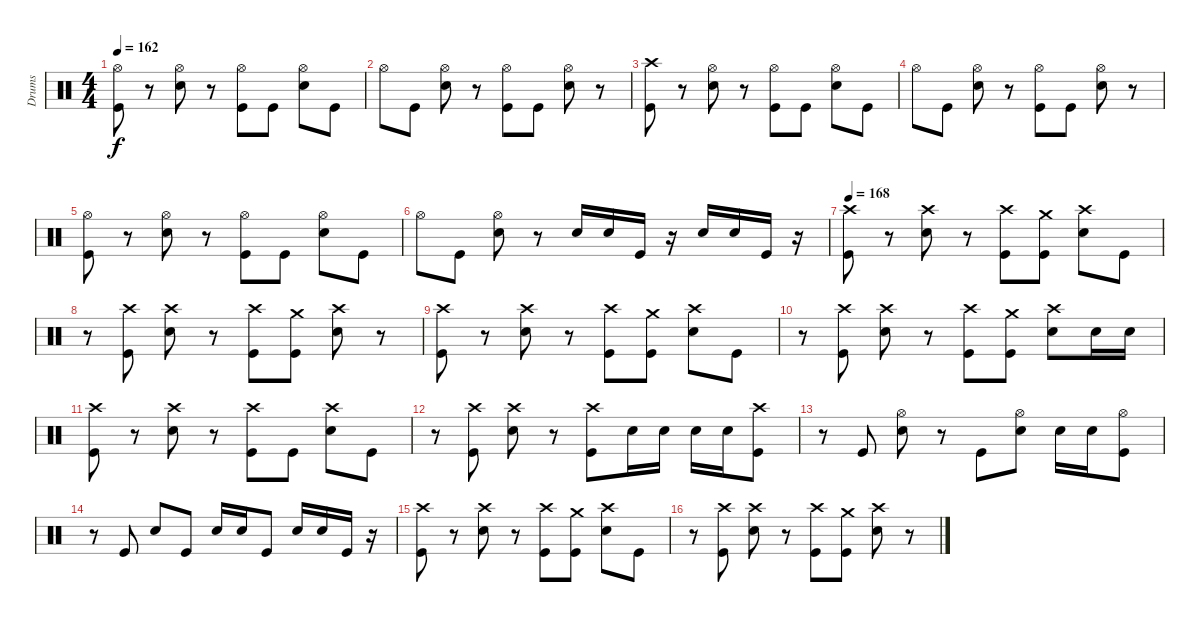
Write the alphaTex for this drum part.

\track ("Drums" "Drums") {instrument percussion}
\staff {score}
\articulation defaults
\ts (4 4)
\tempo 162
\clef neutral
\ks c
("Hi-Hat (open)" "Kick (hit)").8{dy f} r.8 ("Hi-Hat (open)" "Snare (hit) 2").8 r.8 ("Hi-Hat (open)" "Kick (hit)").8 "Kick (hit)".8 ("Hi-Hat (open)" "Snare (hit) 2").8 "Kick (hit)".8 |
"Hi-Hat (open)".8 "Kick (hit)".8 ("Hi-Hat (open)" "Snare (hit) 2").8 r.8 ("Hi-Hat (open)" "Kick (hit)").8 "Kick (hit)".8 ("Hi-Hat (open)" "Snare (hit) 2").8 r.8 |
("Crash high (hit)" "Kick (hit)").8 r.8 ("Hi-Hat (open)" "Snare (hit) 2").8 r.8 ("Hi-Hat (open)" "Kick (hit)").8 "Kick (hit)".8 ("Hi-Hat (open)" "Snare (hit) 2").8 "Kick (hit)".8 |
"Hi-Hat (open)".8 "Kick (hit)".8 ("Hi-Hat (open)" "Snare (hit) 2").8 r.8 ("Hi-Hat (open)" "Kick (hit)").8 "Kick (hit)".8 ("Hi-Hat (open)" "Snare (hit) 2").8 r.8 |
("Hi-Hat (open)" "Kick (hit)").8 r.8 ("Hi-Hat (open)" "Snare (hit) 2").8 r.8 ("Hi-Hat (open)" "Kick (hit)").8 "Kick (hit)".8 ("Hi-Hat (open)" "Snare (hit) 2").8 "Kick (hit)".8 |
"Hi-Hat (open)".8 "Kick (hit)".8 ("Hi-Hat (open)" "Snare (hit) 2").8 r.8 "Snare (hit) 2".16 "Snare (hit) 2".16 "Kick (hit)".16 r.16 "Snare (hit) 2".16 "Snare (hit) 2".16 "Kick (hit)".16 r.16 |
\tempo 168
("Crash high (hit)" "Kick (hit)").8 r.8 ("Crash high (hit)" "Snare (hit) 2").8 r.8 ("Crash high (hit)" "Kick (hit)").8 ("Crash medium (hit)" "Kick (hit)").8 ("Crash high (hit)" "Snare (hit) 2").8 "Kick (hit)".8 |
r.8 ("Crash high (hit)" "Kick (hit)").8 ("Crash high (hit)" "Snare (hit) 2").8 r.8 ("Crash high (hit)" "Kick (hit)").8 ("Crash medium (hit)" "Kick (hit)").8 ("Crash high (hit)" "Snare (hit) 2").8 r.8 |
("Crash high (hit)" "Kick (hit)").8 r.8 ("Crash high (hit)" "Snare (hit) 2").8 r.8 ("Crash high (hit)" "Kick (hit)").8 ("Crash medium (hit)" "Kick (hit)").8 ("Crash high (hit)" "Snare (hit) 2").8 "Kick (hit)".8 |
r.8 ("Crash high (hit)" "Kick (hit)").8 ("Crash high (hit)" "Snare (hit) 2").8 r.8 ("Crash high (hit)" "Kick (hit)").8 ("Crash medium (hit)" "Kick (hit)").8 ("Crash high (hit)" "Snare (hit) 2").8 "Snare (hit) 2".16 "Snare (hit) 2".16 |
("Crash high (hit)" "Kick (hit)").8 r.8 ("Crash high (hit)" "Snare (hit) 2").8 r.8 ("Crash high (hit)" "Kick (hit)").8 "Kick (hit)".8 ("Crash high (hit)" "Snare (hit) 2").8 "Kick (hit)".8 |
r.8 ("Crash high (hit)" "Kick (hit)").8 ("Crash high (hit)" "Snare (hit) 2").8 r.8 ("Crash high (hit)" "Kick (hit)").8 "Snare (hit) 2".16 "Snare (hit) 2".16 "Snare (hit) 2".16 "Snare (hit) 2".16 ("Crash high (hit)" "Kick (hit)").8 |
r.8 "Kick (hit)".8 ("Hi-Hat (open)" "Snare (hit) 2").8 r.8 "Kick (hit)".8 ("Hi-Hat (open)" "Snare (hit) 2").8 "Snare (hit) 2".16 "Snare (hit) 2".16 ("Hi-Hat (open)" "Kick (hit)").8 |
r.8 "Kick (hit)".8 "Snare (hit) 2".8 "Kick (hit)".8 "Snare (hit) 2".16 "Snare (hit) 2".16 "Kick (hit)".8 "Snare (hit) 2".16 "Snare (hit) 2".16 "Kick (hit)".16 r.16 |
("Crash high (hit)" "Kick (hit)").8 r.8 ("Crash high (hit)" "Snare (hit) 2").8 r.8 ("Crash high (hit)" "Kick (hit)").8 ("Crash medium (hit)" "Kick (hit)").8 ("Crash high (hit)" "Snare (hit) 2").8 "Kick (hit)".8 |
r.8 ("Crash high (hit)" "Kick (hit)").8 ("Crash high (hit)" "Snare (hit) 2").8 r.8 ("Crash high (hit)" "Kick (hit)").8 ("Crash medium (hit)" "Kick (hit)").8 ("Crash high (hit)" "Snare (hit) 2").8 r.8
